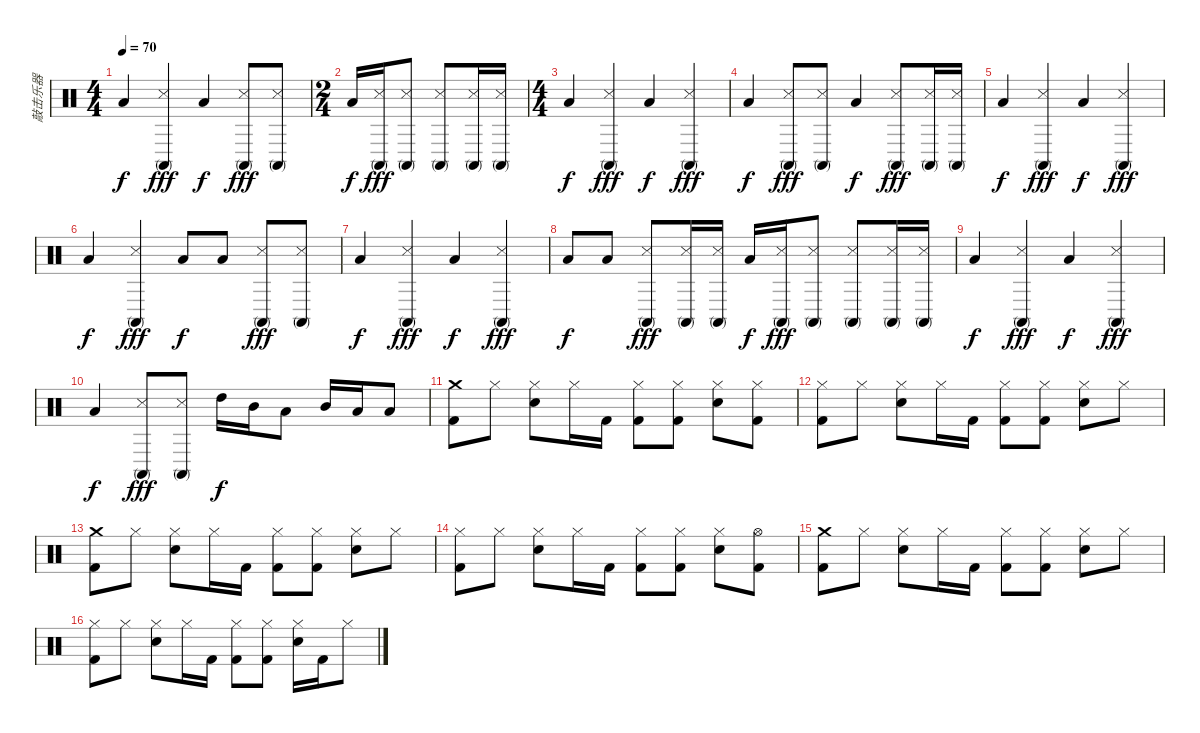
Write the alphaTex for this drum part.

\track ("敲击乐器" "敲击乐器") {instrument percussion}
\staff {score}
\articulation defaults
\ts (4 4)
\tempo 70
\clef neutral
\ks c "Low Floor Tom (hit)".4{dy f volume 16}
("Snare (side stick) 3" "Conga high (mute)").4{dy fff} "Low Floor Tom (hit)".4{dy f} ("Snare (side stick) 3" "Conga high (mute)").8{dy fff} ("Snare (side stick) 3" "Conga high (mute)").8 |
\ts (2 4)
"Low Floor Tom (hit)".16{dy f} ("Snare (side stick) 3" "Conga high (mute)").16{dy fff} ("Snare (side stick) 3" "Conga high (mute)").8 ("Snare (side stick) 3" "Conga high (mute)").8 ("Snare (side stick) 3" "Conga high (mute)").16 ("Snare (side stick) 3" "Conga high (mute)").16 |
\ts (4 4)
"Low Floor Tom (hit)".4{dy f} ("Snare (side stick) 3" "Conga high (mute)").4{dy fff} "Low Floor Tom (hit)".4{dy f} ("Snare (side stick) 3" "Conga high (mute)").4{dy fff} |
"Low Floor Tom (hit)".4{dy f} ("Snare (side stick) 3" "Conga high (mute)").8{dy fff} ("Snare (side stick) 3" "Conga high (mute)").8 "Low Floor Tom (hit)".4{dy f} ("Snare (side stick) 3" "Conga high (mute)").8{dy fff} ("Snare (side stick) 3" "Conga high (mute)").16 ("Snare (side stick) 3" "Conga high (mute)").16 |
"Low Floor Tom (hit)".4{dy f} ("Snare (side stick) 3" "Conga high (mute)").4{dy fff} "Low Floor Tom (hit)".4{dy f} ("Snare (side stick) 3" "Conga high (mute)").4{dy fff} |
"Low Floor Tom (hit)".4{dy f} ("Snare (side stick) 3" "Conga high (mute)").4{dy fff} "Low Floor Tom (hit)".8{dy f} "Low Floor Tom (hit)".8 ("Snare (side stick) 3" "Conga high (mute)").8{dy fff} ("Snare (side stick) 3" "Conga high (mute)").8 |
"Low Floor Tom (hit)".4{dy f} ("Snare (side stick) 3" "Conga high (mute)").4{dy fff} "Low Floor Tom (hit)".4{dy f} ("Snare (side stick) 3" "Conga high (mute)").4{dy fff} |
"Low Floor Tom (hit)".8{dy f} "Low Floor Tom (hit)".8 ("Snare (side stick) 3" "Conga high (mute)").8{dy fff} ("Snare (side stick) 3" "Conga high (mute)").16 ("Snare (side stick) 3" "Conga high (mute)").16 "Low Floor Tom (hit)".16{dy f} ("Snare (side stick) 3" "Conga high (mute)").16{dy fff} ("Snare (side stick) 3" "Conga high (mute)").8 ("Snare (side stick) 3" "Conga high (mute)").8 ("Snare (side stick) 3" "Conga high (mute)").16 ("Snare (side stick) 3" "Conga high (mute)").16 |
"Low Floor Tom (hit)".4{dy f} ("Snare (side stick) 3" "Conga high (mute)").4{dy fff} "Low Floor Tom (hit)".4{dy f} ("Snare (side stick) 3" "Conga high (mute)").4{dy fff} |
"Low Floor Tom (hit)".4{dy f} ("Snare (side stick) 3" "Conga high (mute)").8{dy fff} ("Snare (side stick) 3" "Conga high (mute)").8 "High Tom (hit)".16{dy f} "Mid Tom (hit)".16 "Low Tom (hit)".8 "Mid Tom (hit)".16 "Low Tom (hit)".16 "Low Tom (hit)".8 |
("Crash medium (hit)" "Kick (hit) 2").8 "Hi-Hat (closed)".8 ("Hi-Hat (closed)" "Electric Snare (hit)").8 "Hi-Hat (closed)".16 "Kick (hit) 2".16 ("Hi-Hat (closed)" "Kick (hit) 2").8 ("Hi-Hat (closed)" "Kick (hit) 2").8 ("Hi-Hat (closed)" "Electric Snare (hit)").8 ("Hi-Hat (closed)" "Kick (hit) 2").8 |
("Hi-Hat (closed)" "Kick (hit) 2").8 "Hi-Hat (closed)".8 ("Hi-Hat (closed)" "Electric Snare (hit)").8 "Hi-Hat (closed)".16 "Kick (hit) 2".16 ("Hi-Hat (closed)" "Kick (hit) 2").8 ("Hi-Hat (closed)" "Kick (hit) 2").8 ("Hi-Hat (closed)" "Electric Snare (hit)").8 "Hi-Hat (closed)".8 |
("Crash medium (hit)" "Kick (hit) 2").8 "Hi-Hat (closed)".8 ("Hi-Hat (closed)" "Electric Snare (hit)").8 "Hi-Hat (closed)".16 "Kick (hit) 2".16 ("Hi-Hat (closed)" "Kick (hit) 2").8 ("Hi-Hat (closed)" "Kick (hit) 2").8 ("Hi-Hat (closed)" "Electric Snare (hit)").8 "Hi-Hat (closed)".8 |
("Hi-Hat (closed)" "Kick (hit) 2").8 "Hi-Hat (closed)".8 ("Hi-Hat (closed)" "Electric Snare (hit)").8 "Hi-Hat (closed)".16 "Kick (hit) 2".16 ("Hi-Hat (closed)" "Kick (hit) 2").8 ("Hi-Hat (closed)" "Kick (hit) 2").8 ("Hi-Hat (closed)" "Electric Snare (hit)").8 ("Hi-Hat (open)" "Kick (hit) 2").8 |
("Crash medium (hit)" "Kick (hit) 2").8 "Hi-Hat (closed)".8 ("Hi-Hat (closed)" "Electric Snare (hit)").8 "Hi-Hat (closed)".16 "Kick (hit) 2".16 ("Hi-Hat (closed)" "Kick (hit) 2").8 ("Hi-Hat (closed)" "Kick (hit) 2").8 ("Hi-Hat (closed)" "Electric Snare (hit)").8 "Hi-Hat (closed)".8 |
("Hi-Hat (closed)" "Kick (hit) 2").8 "Hi-Hat (closed)".8 ("Hi-Hat (closed)" "Electric Snare (hit)").8 "Hi-Hat (closed)".16 "Kick (hit) 2".16 ("Hi-Hat (closed)" "Kick (hit) 2").8 ("Hi-Hat (closed)" "Kick (hit) 2").8 ("Hi-Hat (closed)" "Electric Snare (hit)").16 "Kick (hit) 2".16 "Hi-Hat (closed)".8
